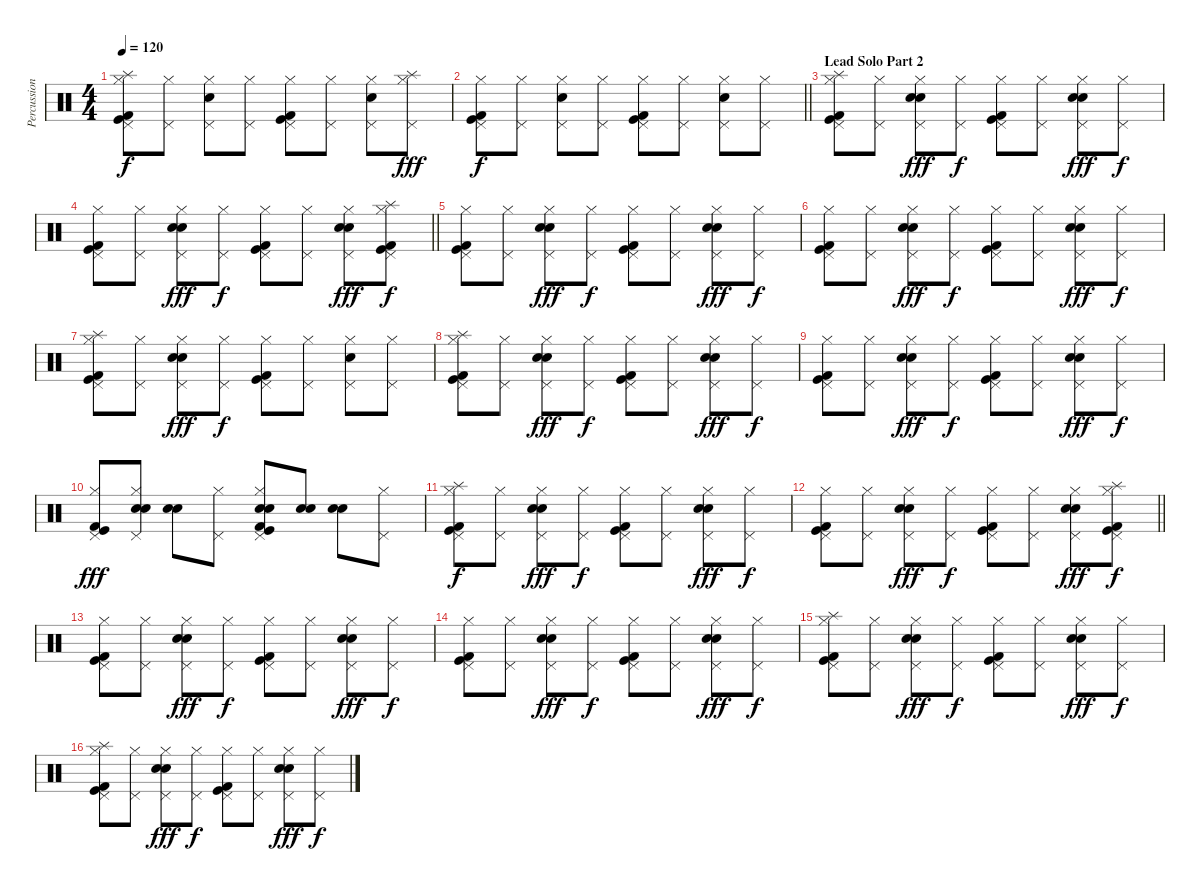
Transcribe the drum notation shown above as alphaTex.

\track ("Percussion" "Percussion") {instrument percussion}
\staff {score}
\articulation defaults
\ts (4 4)
\tempo 120
\clef neutral
\ks c
("Splash (hit)" "Pedal Hi-Hat (hit)" "Hi-Hat (closed)" "Kick (hit)" "Kick (hit) 2").8{dy f} ("Pedal Hi-Hat (hit)" "Hi-Hat (closed)").8 ("Snare (hit) 2" "Pedal Hi-Hat (hit)" "Hi-Hat (closed)").8 ("Pedal Hi-Hat (hit)" "Hi-Hat (closed)").8 ("Pedal Hi-Hat (hit)" "Hi-Hat (closed)" "Kick (hit)" "Kick (hit) 2").8 ("Pedal Hi-Hat (hit)" "Hi-Hat (closed)").8 ("Snare (hit) 2" "Pedal Hi-Hat (hit)" "Hi-Hat (closed)").8 ("Splash (hit)" "Pedal Hi-Hat (hit)" "Hi-Hat (closed)").8{dy fff} |
\barLineRight lightlight
("Pedal Hi-Hat (hit)" "Hi-Hat (closed)" "Kick (hit)" "Kick (hit) 2").8{dy f} ("Pedal Hi-Hat (hit)" "Hi-Hat (closed)").8 ("Snare (hit) 2" "Pedal Hi-Hat (hit)" "Hi-Hat (closed)").8 ("Pedal Hi-Hat (hit)" "Hi-Hat (closed)").8 ("Pedal Hi-Hat (hit)" "Hi-Hat (closed)" "Kick (hit)" "Kick (hit) 2").8 ("Pedal Hi-Hat (hit)" "Hi-Hat (closed)").8 ("Snare (hit) 2" "Pedal Hi-Hat (hit)" "Hi-Hat (closed)").8 ("Pedal Hi-Hat (hit)" "Hi-Hat (closed)").8 |
\section ("" "Lead Solo Part 2")
("Splash (hit)" "Pedal Hi-Hat (hit)" "Hi-Hat (closed)" "Kick (hit)" "Kick (hit) 2").8 ("Pedal Hi-Hat (hit)" "Hi-Hat (closed)").8 ("Electric Snare (hit)" "Snare (hit) 2" "Pedal Hi-Hat (hit)" "Hi-Hat (closed)").8{dy fff} ("Pedal Hi-Hat (hit)" "Hi-Hat (closed)").8{dy f} ("Pedal Hi-Hat (hit)" "Hi-Hat (closed)" "Kick (hit)" "Kick (hit) 2").8 ("Pedal Hi-Hat (hit)" "Hi-Hat (closed)").8 ("Electric Snare (hit)" "Snare (hit) 2" "Pedal Hi-Hat (hit)" "Hi-Hat (closed)").8{dy fff} ("Pedal Hi-Hat (hit)" "Hi-Hat (closed)").8{dy f} |
\barLineRight lightlight
("Pedal Hi-Hat (hit)" "Hi-Hat (closed)" "Kick (hit)" "Kick (hit) 2").8 ("Pedal Hi-Hat (hit)" "Hi-Hat (closed)").8 ("Electric Snare (hit)" "Snare (hit) 2" "Pedal Hi-Hat (hit)" "Hi-Hat (closed)").8{dy fff} ("Pedal Hi-Hat (hit)" "Hi-Hat (closed)").8{dy f} ("Pedal Hi-Hat (hit)" "Hi-Hat (closed)" "Kick (hit)" "Kick (hit) 2").8 ("Pedal Hi-Hat (hit)" "Hi-Hat (closed)").8 ("Electric Snare (hit)" "Snare (hit) 2" "Pedal Hi-Hat (hit)" "Hi-Hat (closed)").8{dy fff} ("Splash (hit)" "Pedal Hi-Hat (hit)" "Hi-Hat (closed)" "Kick (hit)" "Kick (hit) 2").8{dy f} |
("Pedal Hi-Hat (hit)" "Hi-Hat (closed)" "Kick (hit)" "Kick (hit) 2").8 ("Pedal Hi-Hat (hit)" "Hi-Hat (closed)").8 ("Electric Snare (hit)" "Snare (hit) 2" "Pedal Hi-Hat (hit)" "Hi-Hat (closed)").8{dy fff} ("Pedal Hi-Hat (hit)" "Hi-Hat (closed)").8{dy f} ("Pedal Hi-Hat (hit)" "Hi-Hat (closed)" "Kick (hit)" "Kick (hit) 2").8 ("Pedal Hi-Hat (hit)" "Hi-Hat (closed)").8 ("Electric Snare (hit)" "Snare (hit) 2" "Pedal Hi-Hat (hit)" "Hi-Hat (closed)").8{dy fff} ("Pedal Hi-Hat (hit)" "Hi-Hat (closed)").8{dy f} |
("Pedal Hi-Hat (hit)" "Hi-Hat (closed)" "Kick (hit)" "Kick (hit) 2").8 ("Pedal Hi-Hat (hit)" "Hi-Hat (closed)").8 ("Electric Snare (hit)" "Snare (hit) 2" "Pedal Hi-Hat (hit)" "Hi-Hat (closed)").8{dy fff} ("Pedal Hi-Hat (hit)" "Hi-Hat (closed)").8{dy f} ("Pedal Hi-Hat (hit)" "Hi-Hat (closed)" "Kick (hit)" "Kick (hit) 2").8 ("Pedal Hi-Hat (hit)" "Hi-Hat (closed)").8 ("Electric Snare (hit)" "Snare (hit) 2" "Pedal Hi-Hat (hit)" "Hi-Hat (closed)").8{dy fff} ("Pedal Hi-Hat (hit)" "Hi-Hat (closed)").8{dy f} |
("Splash (hit)" "Pedal Hi-Hat (hit)" "Hi-Hat (closed)" "Kick (hit)" "Kick (hit) 2").8 ("Pedal Hi-Hat (hit)" "Hi-Hat (closed)").8 ("Electric Snare (hit)" "Snare (hit) 2" "Pedal Hi-Hat (hit)" "Hi-Hat (closed)").8{dy fff} ("Pedal Hi-Hat (hit)" "Hi-Hat (closed)").8{dy f} ("Pedal Hi-Hat (hit)" "Hi-Hat (closed)" "Kick (hit)" "Kick (hit) 2").8 ("Pedal Hi-Hat (hit)" "Hi-Hat (closed)").8 ("Snare (hit) 2" "Pedal Hi-Hat (hit)" "Hi-Hat (closed)").8 ("Pedal Hi-Hat (hit)" "Hi-Hat (closed)").8 |
("Splash (hit)" "Pedal Hi-Hat (hit)" "Hi-Hat (closed)" "Kick (hit)" "Kick (hit) 2").8 ("Pedal Hi-Hat (hit)" "Hi-Hat (closed)").8 ("Electric Snare (hit)" "Snare (hit) 2" "Pedal Hi-Hat (hit)" "Hi-Hat (closed)").8{dy fff} ("Pedal Hi-Hat (hit)" "Hi-Hat (closed)").8{dy f} ("Pedal Hi-Hat (hit)" "Hi-Hat (closed)" "Kick (hit)" "Kick (hit) 2").8 ("Pedal Hi-Hat (hit)" "Hi-Hat (closed)").8 ("Electric Snare (hit)" "Snare (hit) 2" "Pedal Hi-Hat (hit)" "Hi-Hat (closed)").8{dy fff} ("Pedal Hi-Hat (hit)" "Hi-Hat (closed)").8{dy f} |
("Pedal Hi-Hat (hit)" "Hi-Hat (closed)" "Kick (hit)" "Kick (hit) 2").8 ("Pedal Hi-Hat (hit)" "Hi-Hat (closed)").8 ("Electric Snare (hit)" "Snare (hit) 2" "Pedal Hi-Hat (hit)" "Hi-Hat (closed)").8{dy fff} ("Pedal Hi-Hat (hit)" "Hi-Hat (closed)").8{dy f} ("Pedal Hi-Hat (hit)" "Hi-Hat (closed)" "Kick (hit)" "Kick (hit) 2").8 ("Pedal Hi-Hat (hit)" "Hi-Hat (closed)").8 ("Electric Snare (hit)" "Snare (hit) 2" "Pedal Hi-Hat (hit)" "Hi-Hat (closed)").8{dy fff} ("Pedal Hi-Hat (hit)" "Hi-Hat (closed)").8{dy f} |
("Pedal Hi-Hat (hit)" "Hi-Hat (closed)" "Kick (hit)" "Kick (hit) 2").8{dy fff} ("Snare (hit) 2" "Electric Snare (hit)" "Pedal Hi-Hat (hit)" "Hi-Hat (closed)").8 ("Snare (hit) 2" "Electric Snare (hit)").8 ("Pedal Hi-Hat (hit)" "Hi-Hat (closed)").8 ("Snare (hit) 2" "Electric Snare (hit)" "Pedal Hi-Hat (hit)" "Hi-Hat (closed)" "Kick (hit)" "Kick (hit) 2").8 ("Snare (hit) 2" "Electric Snare (hit)").8 ("Snare (hit) 2" "Electric Snare (hit)").8 ("Pedal Hi-Hat (hit)" "Hi-Hat (closed)").8 |
("Splash (hit)" "Pedal Hi-Hat (hit)" "Hi-Hat (closed)" "Kick (hit)" "Kick (hit) 2").8{dy f} ("Pedal Hi-Hat (hit)" "Hi-Hat (closed)").8 ("Electric Snare (hit)" "Snare (hit) 2" "Pedal Hi-Hat (hit)" "Hi-Hat (closed)").8{dy fff} ("Pedal Hi-Hat (hit)" "Hi-Hat (closed)").8{dy f} ("Pedal Hi-Hat (hit)" "Hi-Hat (closed)" "Kick (hit)" "Kick (hit) 2").8 ("Pedal Hi-Hat (hit)" "Hi-Hat (closed)").8 ("Electric Snare (hit)" "Snare (hit) 2" "Pedal Hi-Hat (hit)" "Hi-Hat (closed)").8{dy fff} ("Pedal Hi-Hat (hit)" "Hi-Hat (closed)").8{dy f} |
\barLineRight lightlight
("Pedal Hi-Hat (hit)" "Hi-Hat (closed)" "Kick (hit)" "Kick (hit) 2").8 ("Pedal Hi-Hat (hit)" "Hi-Hat (closed)").8 ("Electric Snare (hit)" "Snare (hit) 2" "Pedal Hi-Hat (hit)" "Hi-Hat (closed)").8{dy fff} ("Pedal Hi-Hat (hit)" "Hi-Hat (closed)").8{dy f} ("Pedal Hi-Hat (hit)" "Hi-Hat (closed)" "Kick (hit)" "Kick (hit) 2").8 ("Pedal Hi-Hat (hit)" "Hi-Hat (closed)").8 ("Electric Snare (hit)" "Snare (hit) 2" "Pedal Hi-Hat (hit)" "Hi-Hat (closed)").8{dy fff} ("Splash (hit)" "Pedal Hi-Hat (hit)" "Hi-Hat (closed)" "Kick (hit)" "Kick (hit) 2").8{dy f} |
("Pedal Hi-Hat (hit)" "Hi-Hat (closed)" "Kick (hit)" "Kick (hit) 2").8 ("Pedal Hi-Hat (hit)" "Hi-Hat (closed)").8 ("Electric Snare (hit)" "Snare (hit) 2" "Pedal Hi-Hat (hit)" "Hi-Hat (closed)").8{dy fff} ("Pedal Hi-Hat (hit)" "Hi-Hat (closed)").8{dy f} ("Pedal Hi-Hat (hit)" "Hi-Hat (closed)" "Kick (hit)" "Kick (hit) 2").8 ("Pedal Hi-Hat (hit)" "Hi-Hat (closed)").8 ("Electric Snare (hit)" "Snare (hit) 2" "Pedal Hi-Hat (hit)" "Hi-Hat (closed)").8{dy fff} ("Pedal Hi-Hat (hit)" "Hi-Hat (closed)").8{dy f} |
("Pedal Hi-Hat (hit)" "Hi-Hat (closed)" "Kick (hit)" "Kick (hit) 2").8 ("Pedal Hi-Hat (hit)" "Hi-Hat (closed)").8 ("Electric Snare (hit)" "Snare (hit) 2" "Pedal Hi-Hat (hit)" "Hi-Hat (closed)").8{dy fff} ("Pedal Hi-Hat (hit)" "Hi-Hat (closed)").8{dy f} ("Pedal Hi-Hat (hit)" "Hi-Hat (closed)" "Kick (hit)" "Kick (hit) 2").8 ("Pedal Hi-Hat (hit)" "Hi-Hat (closed)").8 ("Electric Snare (hit)" "Snare (hit) 2" "Pedal Hi-Hat (hit)" "Hi-Hat (closed)").8{dy fff} ("Pedal Hi-Hat (hit)" "Hi-Hat (closed)").8{dy f} |
("Splash (hit)" "Pedal Hi-Hat (hit)" "Hi-Hat (closed)" "Kick (hit)" "Kick (hit) 2").8 ("Pedal Hi-Hat (hit)" "Hi-Hat (closed)").8 ("Electric Snare (hit)" "Snare (hit) 2" "Pedal Hi-Hat (hit)" "Hi-Hat (closed)").8{dy fff} ("Pedal Hi-Hat (hit)" "Hi-Hat (closed)").8{dy f} ("Pedal Hi-Hat (hit)" "Hi-Hat (closed)" "Kick (hit)" "Kick (hit) 2").8 ("Pedal Hi-Hat (hit)" "Hi-Hat (closed)").8 ("Electric Snare (hit)" "Snare (hit) 2" "Pedal Hi-Hat (hit)" "Hi-Hat (closed)").8{dy fff} ("Pedal Hi-Hat (hit)" "Hi-Hat (closed)").8{dy f} |
("Splash (hit)" "Pedal Hi-Hat (hit)" "Hi-Hat (closed)" "Kick (hit)" "Kick (hit) 2").8 ("Pedal Hi-Hat (hit)" "Hi-Hat (closed)").8 ("Electric Snare (hit)" "Snare (hit) 2" "Pedal Hi-Hat (hit)" "Hi-Hat (closed)").8{dy fff} ("Pedal Hi-Hat (hit)" "Hi-Hat (closed)").8{dy f} ("Pedal Hi-Hat (hit)" "Hi-Hat (closed)" "Kick (hit)" "Kick (hit) 2").8 ("Pedal Hi-Hat (hit)" "Hi-Hat (closed)").8 ("Electric Snare (hit)" "Snare (hit) 2" "Pedal Hi-Hat (hit)" "Hi-Hat (closed)").8{dy fff} ("Pedal Hi-Hat (hit)" "Hi-Hat (closed)").8{dy f}
